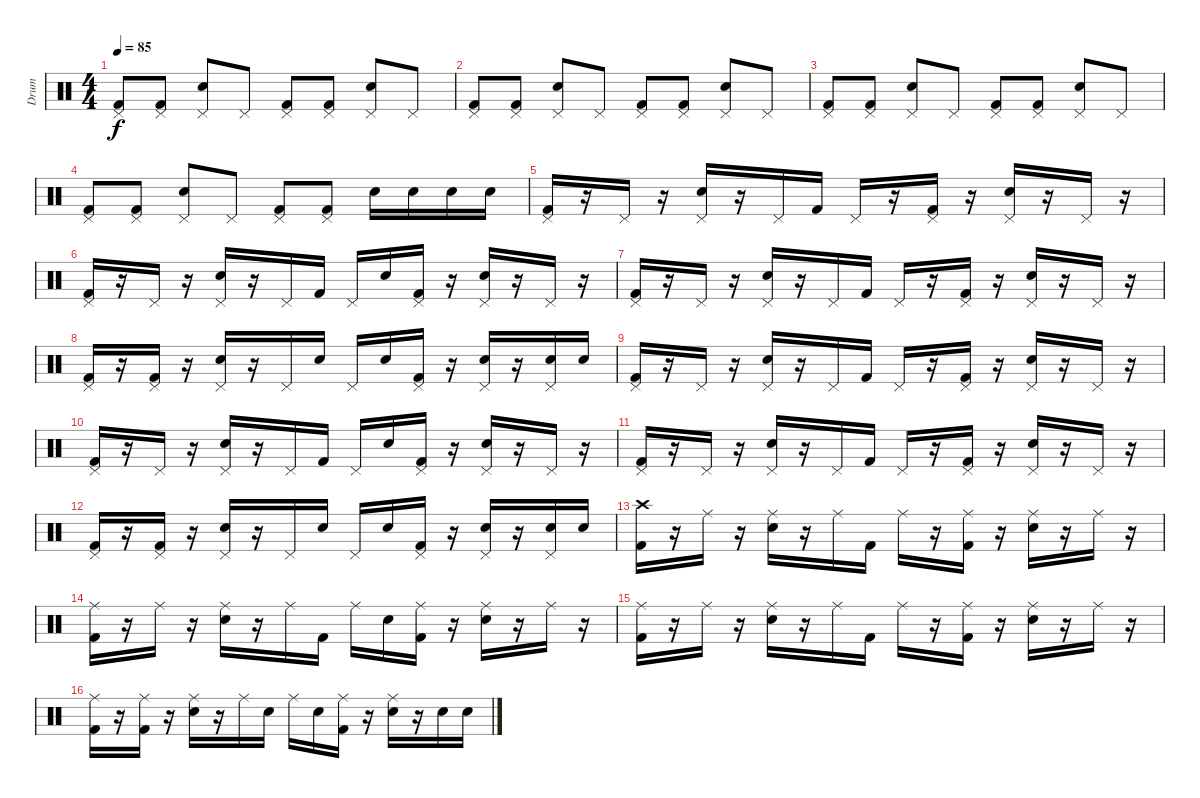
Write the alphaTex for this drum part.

\track ("Drum" "Drum") {instrument percussion}
\staff {score}
\articulation defaults
\ts (4 4)
\tempo 85
\clef neutral
\ks c
("Pedal Hi-Hat (hit)" "Kick (hit) 2").8{dy f} ("Pedal Hi-Hat (hit)" "Kick (hit) 2").8 ("Pedal Hi-Hat (hit)" "Electric Snare (hit)").8 "Pedal Hi-Hat (hit)".8 ("Pedal Hi-Hat (hit)" "Kick (hit) 2").8 ("Pedal Hi-Hat (hit)" "Kick (hit) 2").8 ("Pedal Hi-Hat (hit)" "Electric Snare (hit)").8 "Pedal Hi-Hat (hit)".8 |
("Pedal Hi-Hat (hit)" "Kick (hit) 2").8 ("Pedal Hi-Hat (hit)" "Kick (hit) 2").8 ("Pedal Hi-Hat (hit)" "Electric Snare (hit)").8 "Pedal Hi-Hat (hit)".8 ("Pedal Hi-Hat (hit)" "Kick (hit) 2").8 ("Pedal Hi-Hat (hit)" "Kick (hit) 2").8 ("Pedal Hi-Hat (hit)" "Electric Snare (hit)").8 "Pedal Hi-Hat (hit)".8 |
("Pedal Hi-Hat (hit)" "Kick (hit) 2").8 ("Pedal Hi-Hat (hit)" "Kick (hit) 2").8 ("Pedal Hi-Hat (hit)" "Electric Snare (hit)").8 "Pedal Hi-Hat (hit)".8 ("Pedal Hi-Hat (hit)" "Kick (hit) 2").8 ("Pedal Hi-Hat (hit)" "Kick (hit) 2").8 ("Pedal Hi-Hat (hit)" "Electric Snare (hit)").8 "Pedal Hi-Hat (hit)".8 |
("Pedal Hi-Hat (hit)" "Kick (hit) 2").8 ("Pedal Hi-Hat (hit)" "Kick (hit) 2").8 ("Pedal Hi-Hat (hit)" "Electric Snare (hit)").8 "Pedal Hi-Hat (hit)".8 ("Pedal Hi-Hat (hit)" "Kick (hit) 2").8 ("Pedal Hi-Hat (hit)" "Kick (hit) 2").8 "Electric Snare (hit)".16 "Electric Snare (hit)".16 "Electric Snare (hit)".16 "Electric Snare (hit)".16 |
("Pedal Hi-Hat (hit)" "Kick (hit) 2").16 r.16 "Pedal Hi-Hat (hit)".16 r.16 ("Pedal Hi-Hat (hit)" "Electric Snare (hit)").16 r.16 "Pedal Hi-Hat (hit)".16 "Kick (hit) 2".16 "Pedal Hi-Hat (hit)".16 r.16 ("Pedal Hi-Hat (hit)" "Kick (hit) 2").16 r.16 ("Pedal Hi-Hat (hit)" "Electric Snare (hit)").16 r.16 "Pedal Hi-Hat (hit)".16 r.16 |
("Pedal Hi-Hat (hit)" "Kick (hit) 2").16 r.16 "Pedal Hi-Hat (hit)".16 r.16 ("Pedal Hi-Hat (hit)" "Electric Snare (hit)").16 r.16 "Pedal Hi-Hat (hit)".16 "Kick (hit) 2".16 "Pedal Hi-Hat (hit)".16 "Electric Snare (hit)".16 ("Pedal Hi-Hat (hit)" "Kick (hit) 2").16 r.16 ("Pedal Hi-Hat (hit)" "Electric Snare (hit)").16 r.16 "Pedal Hi-Hat (hit)".16 r.16 |
("Pedal Hi-Hat (hit)" "Kick (hit) 2").16 r.16 "Pedal Hi-Hat (hit)".16 r.16 ("Pedal Hi-Hat (hit)" "Electric Snare (hit)").16 r.16 "Pedal Hi-Hat (hit)".16 "Kick (hit) 2".16 "Pedal Hi-Hat (hit)".16 r.16 ("Pedal Hi-Hat (hit)" "Kick (hit) 2").16 r.16 ("Pedal Hi-Hat (hit)" "Electric Snare (hit)").16 r.16 "Pedal Hi-Hat (hit)".16 r.16 |
("Pedal Hi-Hat (hit)" "Kick (hit) 2").16 r.16 ("Pedal Hi-Hat (hit)" "Kick (hit) 2").16 r.16 ("Pedal Hi-Hat (hit)" "Electric Snare (hit)").16 r.16 "Pedal Hi-Hat (hit)".16 "Electric Snare (hit)".16 "Pedal Hi-Hat (hit)".16 "Electric Snare (hit)".16 ("Pedal Hi-Hat (hit)" "Kick (hit) 2").16 r.16 ("Pedal Hi-Hat (hit)" "Electric Snare (hit)").16 r.16 ("Pedal Hi-Hat (hit)" "Electric Snare (hit)").16 "Electric Snare (hit)".16 |
("Pedal Hi-Hat (hit)" "Kick (hit) 2").16 r.16 "Pedal Hi-Hat (hit)".16 r.16 ("Pedal Hi-Hat (hit)" "Electric Snare (hit)").16 r.16 "Pedal Hi-Hat (hit)".16 "Kick (hit) 2".16 "Pedal Hi-Hat (hit)".16 r.16 ("Pedal Hi-Hat (hit)" "Kick (hit) 2").16 r.16 ("Pedal Hi-Hat (hit)" "Electric Snare (hit)").16 r.16 "Pedal Hi-Hat (hit)".16 r.16 |
("Pedal Hi-Hat (hit)" "Kick (hit) 2").16 r.16 "Pedal Hi-Hat (hit)".16 r.16 ("Pedal Hi-Hat (hit)" "Electric Snare (hit)").16 r.16 "Pedal Hi-Hat (hit)".16 "Kick (hit) 2".16 "Pedal Hi-Hat (hit)".16 "Electric Snare (hit)".16 ("Pedal Hi-Hat (hit)" "Kick (hit) 2").16 r.16 ("Pedal Hi-Hat (hit)" "Electric Snare (hit)").16 r.16 "Pedal Hi-Hat (hit)".16 r.16 |
("Pedal Hi-Hat (hit)" "Kick (hit) 2").16 r.16 "Pedal Hi-Hat (hit)".16 r.16 ("Pedal Hi-Hat (hit)" "Electric Snare (hit)").16 r.16 "Pedal Hi-Hat (hit)".16 "Kick (hit) 2".16 "Pedal Hi-Hat (hit)".16 r.16 ("Pedal Hi-Hat (hit)" "Kick (hit) 2").16 r.16 ("Pedal Hi-Hat (hit)" "Electric Snare (hit)").16 r.16 "Pedal Hi-Hat (hit)".16 r.16 |
("Pedal Hi-Hat (hit)" "Kick (hit) 2").16 r.16 ("Pedal Hi-Hat (hit)" "Kick (hit) 2").16 r.16 ("Pedal Hi-Hat (hit)" "Electric Snare (hit)").16 r.16 "Pedal Hi-Hat (hit)".16 "Electric Snare (hit)".16 "Pedal Hi-Hat (hit)".16 "Electric Snare (hit)".16 ("Pedal Hi-Hat (hit)" "Kick (hit) 2").16 r.16 ("Pedal Hi-Hat (hit)" "Electric Snare (hit)").16 r.16 ("Pedal Hi-Hat (hit)" "Electric Snare (hit)").16 "Electric Snare (hit)".16 |
("Crash high (hit)" "Kick (hit) 2").16 r.16 "Ride (middle)".16 r.16 ("Ride (middle)" "Electric Snare (hit)").16 r.16 "Ride (middle)".16 "Kick (hit) 2".16 "Ride (middle)".16 r.16 ("Ride (middle)" "Kick (hit) 2").16 r.16 ("Ride (middle)" "Electric Snare (hit)").16 r.16 "Ride (middle)".16 r.16 |
("Ride (middle)" "Kick (hit) 2").16 r.16 "Ride (middle)".16 r.16 ("Ride (middle)" "Electric Snare (hit)").16 r.16 "Ride (middle)".16 "Kick (hit) 2".16 "Ride (middle)".16 "Electric Snare (hit)".16 ("Ride (middle)" "Kick (hit) 2").16 r.16 ("Ride (middle)" "Electric Snare (hit)").16 r.16 "Ride (middle)".16 r.16 |
("Ride (middle)" "Kick (hit) 2").16 r.16 "Ride (middle)".16 r.16 ("Ride (middle)" "Electric Snare (hit)").16 r.16 "Ride (middle)".16 "Kick (hit) 2".16 "Ride (middle)".16 r.16 ("Ride (middle)" "Kick (hit) 2").16 r.16 ("Ride (middle)" "Electric Snare (hit)").16 r.16 "Ride (middle)".16 r.16 |
("Ride (middle)" "Kick (hit) 2").16 r.16 ("Ride (middle)" "Kick (hit) 2").16 r.16 ("Ride (middle)" "Electric Snare (hit)").16 r.16 "Ride (middle)".16 "Electric Snare (hit)".16 "Ride (middle)".16 "Electric Snare (hit)".16 ("Ride (middle)" "Kick (hit) 2").16 r.16 ("Ride (middle)" "Electric Snare (hit)").16 r.16 "Electric Snare (hit)".16 "Electric Snare (hit)".16
